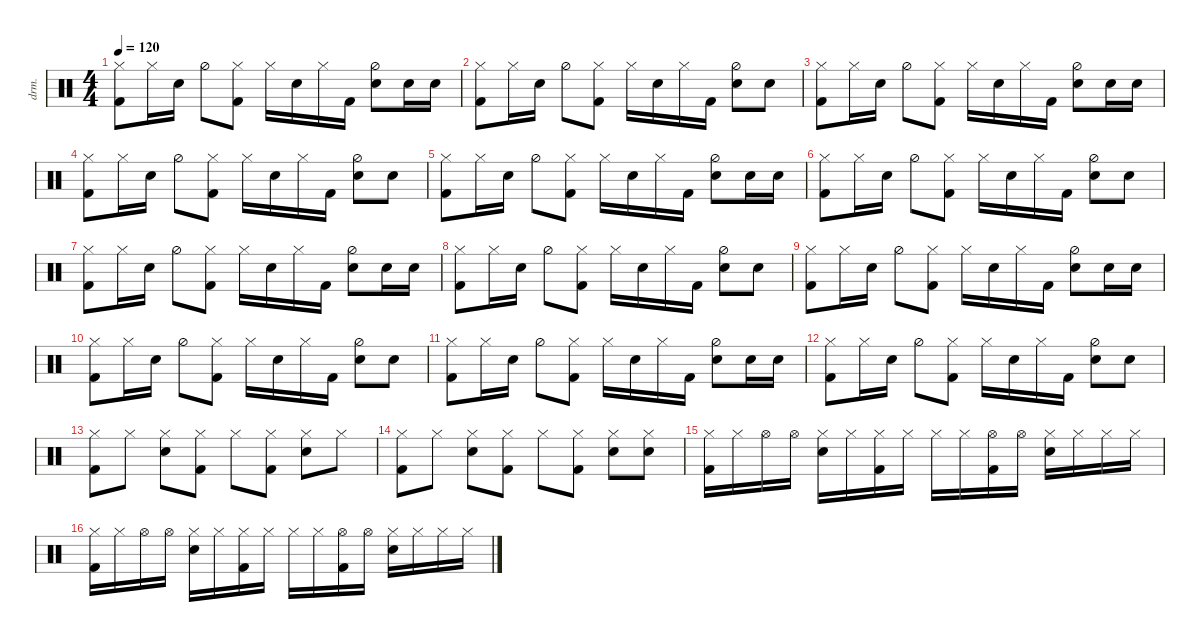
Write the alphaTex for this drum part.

\defaultSystemsLayout 4
\hideDynamics
\bracketExtendMode nobrackets
\otherSystemsTrackNameOrientation horizontal
\track ("Drumkit" "drm.") {instrument percussion}
\staff {score}
\articulation defaults
\ts (4 4)
\tempo 120
\clef neutral
\ks c
("Kick (hit) 2" "Hi-Hat (closed)").8{dy mf beam Down} "Hi-Hat (closed)".16{beam Down} "Snare (hit) 2".16{beam Down} "Hi-Hat (half)".8{beam Down} ("Kick (hit) 2" "Hi-Hat (closed)").8{beam Down} "Hi-Hat (closed)".16{beam Down} "Snare (hit) 2".16{beam Down} "Hi-Hat (closed)".16{beam Down} "Kick (hit) 2".16{beam Down} ("Snare (hit) 2" "Hi-Hat (half)").8{beam Down} "Snare (hit) 2".16{beam Down} "Snare (hit) 2".16{beam Down} |
("Kick (hit) 2" "Hi-Hat (closed)").8{beam Down} "Hi-Hat (closed)".16{beam Down} "Snare (hit) 2".16{beam Down} "Hi-Hat (half)".8{beam Down} ("Kick (hit) 2" "Hi-Hat (closed)").8{beam Down} "Hi-Hat (closed)".16{beam Down} "Snare (hit) 2".16{beam Down} "Hi-Hat (closed)".16{beam Down} "Kick (hit) 2".16{beam Down} ("Snare (hit) 2" "Hi-Hat (half)").8{beam Down} "Snare (hit) 2".8{beam Down} |
("Kick (hit) 2" "Hi-Hat (closed)").8{beam Down} "Hi-Hat (closed)".16{beam Down} "Snare (hit) 2".16{beam Down} "Hi-Hat (half)".8{beam Down} ("Kick (hit) 2" "Hi-Hat (closed)").8{beam Down} "Hi-Hat (closed)".16{beam Down} "Snare (hit) 2".16{beam Down} "Hi-Hat (closed)".16{beam Down} "Kick (hit) 2".16{beam Down} ("Snare (hit) 2" "Hi-Hat (half)").8{beam Down} "Snare (hit) 2".16{beam Down} "Snare (hit) 2".16{beam Down} |
("Kick (hit) 2" "Hi-Hat (closed)").8{beam Down} "Hi-Hat (closed)".16{beam Down} "Snare (hit) 2".16{beam Down} "Hi-Hat (half)".8{beam Down} ("Kick (hit) 2" "Hi-Hat (closed)").8{beam Down} "Hi-Hat (closed)".16{beam Down} "Snare (hit) 2".16{beam Down} "Hi-Hat (closed)".16{beam Down} "Kick (hit) 2".16{beam Down} ("Snare (hit) 2" "Hi-Hat (half)").8{beam Down} "Snare (hit) 2".8{beam Down} |
("Kick (hit) 2" "Hi-Hat (closed)").8{beam Down} "Hi-Hat (closed)".16{beam Down} "Snare (hit) 2".16{beam Down} "Hi-Hat (half)".8{beam Down} ("Kick (hit) 2" "Hi-Hat (closed)").8{beam Down} "Hi-Hat (closed)".16{beam Down} "Snare (hit) 2".16{beam Down} "Hi-Hat (closed)".16{beam Down} "Kick (hit) 2".16{beam Down} ("Snare (hit) 2" "Hi-Hat (half)").8{beam Down} "Snare (hit) 2".16{beam Down} "Snare (hit) 2".16{beam Down} |
("Kick (hit) 2" "Hi-Hat (closed)").8{beam Down} "Hi-Hat (closed)".16{beam Down} "Snare (hit) 2".16{beam Down} "Hi-Hat (half)".8{beam Down} ("Kick (hit) 2" "Hi-Hat (closed)").8{beam Down} "Hi-Hat (closed)".16{beam Down} "Snare (hit) 2".16{beam Down} "Hi-Hat (closed)".16{beam Down} "Kick (hit) 2".16{beam Down} ("Snare (hit) 2" "Hi-Hat (half)").8{beam Down} "Snare (hit) 2".8{beam Down} |
("Kick (hit) 2" "Hi-Hat (closed)").8{beam Down} "Hi-Hat (closed)".16{beam Down} "Snare (hit) 2".16{beam Down} "Hi-Hat (half)".8{beam Down} ("Kick (hit) 2" "Hi-Hat (closed)").8{beam Down} "Hi-Hat (closed)".16{beam Down} "Snare (hit) 2".16{beam Down} "Hi-Hat (closed)".16{beam Down} "Kick (hit) 2".16{beam Down} ("Snare (hit) 2" "Hi-Hat (half)").8{beam Down} "Snare (hit) 2".16{beam Down} "Snare (hit) 2".16{beam Down} |
("Kick (hit) 2" "Hi-Hat (closed)").8{beam Down} "Hi-Hat (closed)".16{beam Down} "Snare (hit) 2".16{beam Down} "Hi-Hat (half)".8{beam Down} ("Kick (hit) 2" "Hi-Hat (closed)").8{beam Down} "Hi-Hat (closed)".16{beam Down} "Snare (hit) 2".16{beam Down} "Hi-Hat (closed)".16{beam Down} "Kick (hit) 2".16{beam Down} ("Snare (hit) 2" "Hi-Hat (half)").8{beam Down} "Snare (hit) 2".8{beam Down} |
("Kick (hit) 2" "Hi-Hat (closed)").8{beam Down} "Hi-Hat (closed)".16{beam Down} "Snare (hit) 2".16{beam Down} "Hi-Hat (half)".8{beam Down} ("Kick (hit) 2" "Hi-Hat (closed)").8{beam Down} "Hi-Hat (closed)".16{beam Down} "Snare (hit) 2".16{beam Down} "Hi-Hat (closed)".16{beam Down} "Kick (hit) 2".16{beam Down} ("Snare (hit) 2" "Hi-Hat (half)").8{beam Down} "Snare (hit) 2".16{beam Down} "Snare (hit) 2".16{beam Down} |
("Kick (hit) 2" "Hi-Hat (closed)").8{beam Down} "Hi-Hat (closed)".16{beam Down} "Snare (hit) 2".16{beam Down} "Hi-Hat (half)".8{beam Down} ("Kick (hit) 2" "Hi-Hat (closed)").8{beam Down} "Hi-Hat (closed)".16{beam Down} "Snare (hit) 2".16{beam Down} "Hi-Hat (closed)".16{beam Down} "Kick (hit) 2".16{beam Down} ("Snare (hit) 2" "Hi-Hat (half)").8{beam Down} "Snare (hit) 2".8{beam Down} |
("Kick (hit) 2" "Hi-Hat (closed)").8{beam Down} "Hi-Hat (closed)".16{beam Down} "Snare (hit) 2".16{beam Down} "Hi-Hat (half)".8{beam Down} ("Kick (hit) 2" "Hi-Hat (closed)").8{beam Down} "Hi-Hat (closed)".16{beam Down} "Snare (hit) 2".16{beam Down} "Hi-Hat (closed)".16{beam Down} "Kick (hit) 2".16{beam Down} ("Snare (hit) 2" "Hi-Hat (half)").8{beam Down} "Snare (hit) 2".16{beam Down} "Snare (hit) 2".16{beam Down} |
("Kick (hit) 2" "Hi-Hat (closed)").8{beam Down} "Hi-Hat (closed)".16{beam Down} "Snare (hit) 2".16{beam Down} "Hi-Hat (half)".8{beam Down} ("Kick (hit) 2" "Hi-Hat (closed)").8{beam Down} "Hi-Hat (closed)".16{beam Down} "Snare (hit) 2".16{beam Down} "Hi-Hat (closed)".16{beam Down} "Kick (hit) 2".16{beam Down} ("Snare (hit) 2" "Hi-Hat (half)").8{beam Down} "Snare (hit) 2".8{beam Down} |
("Hi-Hat (closed)" "Kick (hit) 2").8{beam Down} "Hi-Hat (closed)".8{beam Down} ("Hi-Hat (closed)" "Snare (hit) 2").8{beam Down} ("Hi-Hat (closed)" "Kick (hit) 2").8{beam Down} "Hi-Hat (closed)".8{beam Down} ("Hi-Hat (closed)" "Kick (hit) 2").8{beam Down} ("Hi-Hat (closed)" "Snare (hit) 2").8{beam Down} "Hi-Hat (closed)".8{beam Down} |
("Hi-Hat (closed)" "Kick (hit) 2").8{beam Down} "Hi-Hat (closed)".8{beam Down} ("Hi-Hat (closed)" "Snare (hit) 2").8{beam Down} ("Hi-Hat (closed)" "Kick (hit) 2").8{beam Down} "Hi-Hat (closed)".8{beam Down} ("Hi-Hat (closed)" "Kick (hit) 2").8{beam Down} ("Hi-Hat (closed)" "Snare (hit) 2").8{beam Down} ("Snare (hit) 2" "Hi-Hat (closed)").8{beam Down} |
("Hi-Hat (closed)" "Kick (hit) 2").16{beam Down} "Hi-Hat (closed)".16{beam Down} "Hi-Hat (open)".16{beam Down} "Hi-Hat (open)".16{beam Down} ("Hi-Hat (closed)" "Snare (hit) 2").16{beam Down} "Hi-Hat (closed)".16{beam Down} ("Hi-Hat (closed)" "Kick (hit) 2").16{beam Down} "Hi-Hat (closed)".16{beam Down} "Hi-Hat (closed)".16{beam Down} "Hi-Hat (closed)".16{beam Down} ("Hi-Hat (open)" "Kick (hit) 2").16{beam Down} "Hi-Hat (open)".16{beam Down} ("Hi-Hat (closed)" "Snare (hit) 2").16{beam Down} "Hi-Hat (closed)".16{beam Down} "Hi-Hat (closed)".16{beam Down} "Hi-Hat (closed)".16{beam Down} |
("Hi-Hat (closed)" "Kick (hit) 2").16{beam Down} "Hi-Hat (closed)".16{beam Down} "Hi-Hat (open)".16{beam Down} "Hi-Hat (open)".16{beam Down} ("Hi-Hat (closed)" "Snare (hit) 2").16{beam Down} "Hi-Hat (closed)".16{beam Down} ("Hi-Hat (closed)" "Kick (hit) 2").16{beam Down} "Hi-Hat (closed)".16{beam Down} "Hi-Hat (closed)".16{beam Down} "Hi-Hat (closed)".16{beam Down} ("Hi-Hat (open)" "Kick (hit) 2").16{beam Down} "Hi-Hat (open)".16{beam Down} ("Hi-Hat (closed)" "Snare (hit) 2").16{beam Down} "Hi-Hat (closed)".16{beam Down} "Hi-Hat (closed)".16{beam Down} "Hi-Hat (closed)".16{beam Down}
